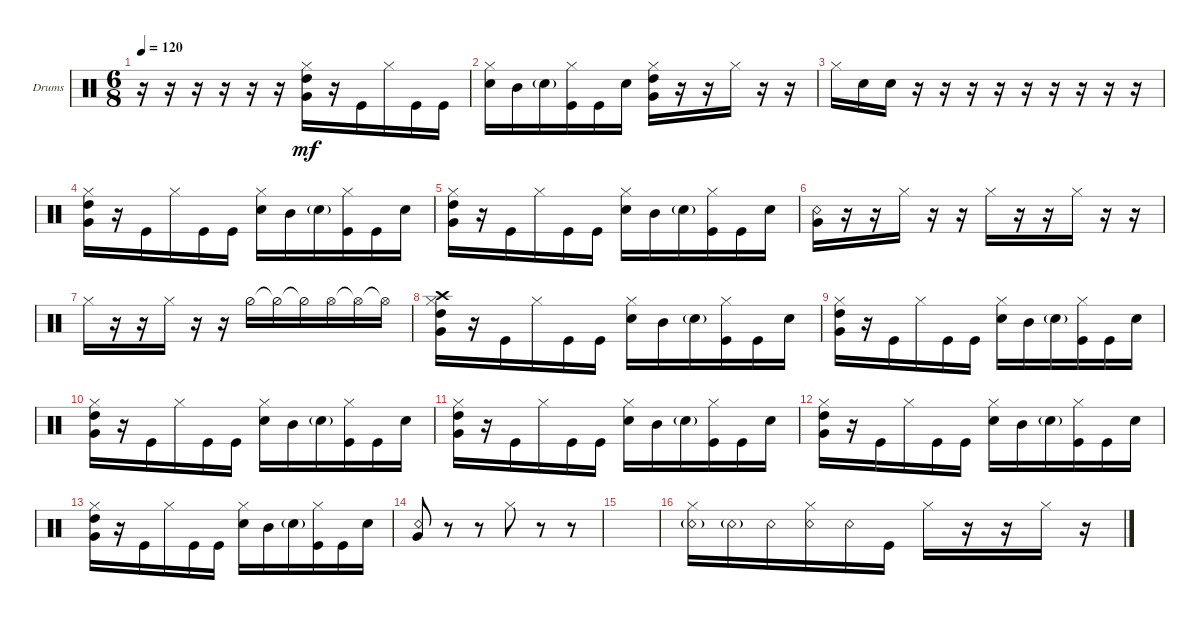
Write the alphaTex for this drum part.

\defaultSystemsLayout 4
\bracketExtendMode groupsimilarinstruments
\firstSystemTrackNameOrientation horizontal
\otherSystemsTrackNameOrientation horizontal
\track ("Drumkit" "Drums") {instrument percussion}
\staff {score}
\articulation defaults
\ts (6 8)
\tempo 120
\clef neutral
\ks c
r.16{dy mf} r.16 r.16 r.16 r.16 r.16 ("Very Low Tom (hit)" "Hi-Hat (closed)" "High Tom (hit)").16 r.16 "Kick (hit)".16 "Hi-Hat (closed)".16 "Kick (hit)".16 "Kick (hit)".16 |
("Snare (hit) 2" "Hi-Hat (closed)").16 "Mid Tom (hit)".16 "Snare (hit) 2"{g}.16 ("Kick (hit)" "Hi-Hat (closed)").16 "Kick (hit)".16 "Snare (hit) 2".16 ("Very Low Tom (hit)" "Hi-Hat (closed)" "High Tom (hit)").16 r.16 r.16 "Hi-Hat (closed)".16 r.16 r.16 |
"Hi-Hat (closed)".16 "Snare (hit) 2".16 "Snare (hit) 2".16 r.16 r.16 r.16 r.16 r.16 r.16 r.16 r.16 r.16 |
("Very Low Tom (hit)" "Hi-Hat (closed)" "High Tom (hit)").16 r.16 "Kick (hit)".16 "Hi-Hat (closed)".16 "Kick (hit)".16 "Kick (hit)".16 ("Snare (hit) 2" "Hi-Hat (closed)").16 "Mid Tom (hit)".16 "Snare (hit) 2"{g}.16 ("Kick (hit)" "Hi-Hat (closed)").16 "Kick (hit)".16 "Snare (hit) 2".16 |
("Very Low Tom (hit)" "Hi-Hat (closed)" "High Tom (hit)").16 r.16 "Kick (hit)".16 "Hi-Hat (closed)".16 "Kick (hit)".16 "Kick (hit)".16 ("Snare (hit) 2" "Hi-Hat (closed)").16 "Mid Tom (hit)".16 "Snare (hit) 2"{g}.16 ("Kick (hit)" "Hi-Hat (closed)").16 "Kick (hit)".16 "Snare (hit) 2".16 |
("Very Low Tom (hit)" "Snare (rim shot)").16 r.16 r.16 "Hi-Hat (closed)".16 r.16 r.16 "Hi-Hat (closed)".16 r.16 r.16 "Hi-Hat (closed)".16 r.16 r.16 |
"Hi-Hat (closed)".16 r.16 r.16 "Hi-Hat (closed)".16 r.16 r.16 "Hi-Hat (half)".16 "Hi-Hat (half)"{t}.16 "Hi-Hat (half)"{t}.16 "Hi-Hat (open)".16 "Hi-Hat (open)"{t}.16 "Hi-Hat (open)"{t}.16 |
("Very Low Tom (hit)" "Hi-Hat (closed)" "High Tom (hit)" "Crash high (hit)").16 r.16 "Kick (hit)".16 "Hi-Hat (closed)".16 "Kick (hit)".16 "Kick (hit)".16 ("Snare (hit) 2" "Hi-Hat (closed)").16 "Mid Tom (hit)".16 "Snare (hit) 2"{g}.16 ("Kick (hit)" "Hi-Hat (closed)").16 "Kick (hit)".16 "Snare (hit) 2".16 |
("Very Low Tom (hit)" "Hi-Hat (closed)" "High Tom (hit)").16 r.16 "Kick (hit)".16 "Hi-Hat (closed)".16 "Kick (hit)".16 "Kick (hit)".16 ("Snare (hit) 2" "Hi-Hat (closed)").16 "Mid Tom (hit)".16 "Snare (hit) 2"{g}.16 ("Kick (hit)" "Hi-Hat (closed)").16 "Kick (hit)".16 "Snare (hit) 2".16 |
("Very Low Tom (hit)" "Hi-Hat (closed)" "High Tom (hit)").16 r.16 "Kick (hit)".16 "Hi-Hat (closed)".16 "Kick (hit)".16 "Kick (hit)".16 ("Snare (hit) 2" "Hi-Hat (closed)").16 "Mid Tom (hit)".16 "Snare (hit) 2"{g}.16 ("Kick (hit)" "Hi-Hat (closed)").16 "Kick (hit)".16 "Snare (hit) 2".16 |
("Very Low Tom (hit)" "Hi-Hat (closed)" "High Tom (hit)").16 r.16 "Kick (hit)".16 "Hi-Hat (closed)".16 "Kick (hit)".16 "Kick (hit)".16 ("Snare (hit) 2" "Hi-Hat (closed)").16 "Mid Tom (hit)".16 "Snare (hit) 2"{g}.16 ("Kick (hit)" "Hi-Hat (closed)").16 "Kick (hit)".16 "Snare (hit) 2".16 |
("Very Low Tom (hit)" "Hi-Hat (closed)" "High Tom (hit)").16 r.16 "Kick (hit)".16 "Hi-Hat (closed)".16 "Kick (hit)".16 "Kick (hit)".16 ("Snare (hit) 2" "Hi-Hat (closed)").16 "Mid Tom (hit)".16 "Snare (hit) 2"{g}.16 ("Kick (hit)" "Hi-Hat (closed)").16 "Kick (hit)".16 "Snare (hit) 2".16 |
("Very Low Tom (hit)" "Hi-Hat (closed)" "High Tom (hit)").16 r.16 "Kick (hit)".16 "Hi-Hat (closed)".16 "Kick (hit)".16 "Kick (hit)".16 ("Snare (hit) 2" "Hi-Hat (closed)").16 "Mid Tom (hit)".16 "Snare (hit) 2"{g}.16 ("Kick (hit)" "Hi-Hat (closed)").16 "Kick (hit)".16 "Snare (hit) 2".16 |
("Very Low Tom (hit)" "Snare (rim shot)").8 r.8 r.8 "Hi-Hat (closed)".8 r.8 r.8 |
|
("Snare (rim shot)"{g} "Hi-Hat (closed)").16 "Snare (rim shot)"{g}.16 "Snare (rim shot)".16 ("Snare (rim shot)" "Hi-Hat (closed)").16 "Snare (rim shot)".16 "Kick (hit)".16 "Hi-Hat (closed)".16 r.16 r.16 "Hi-Hat (closed)".16 r.16
